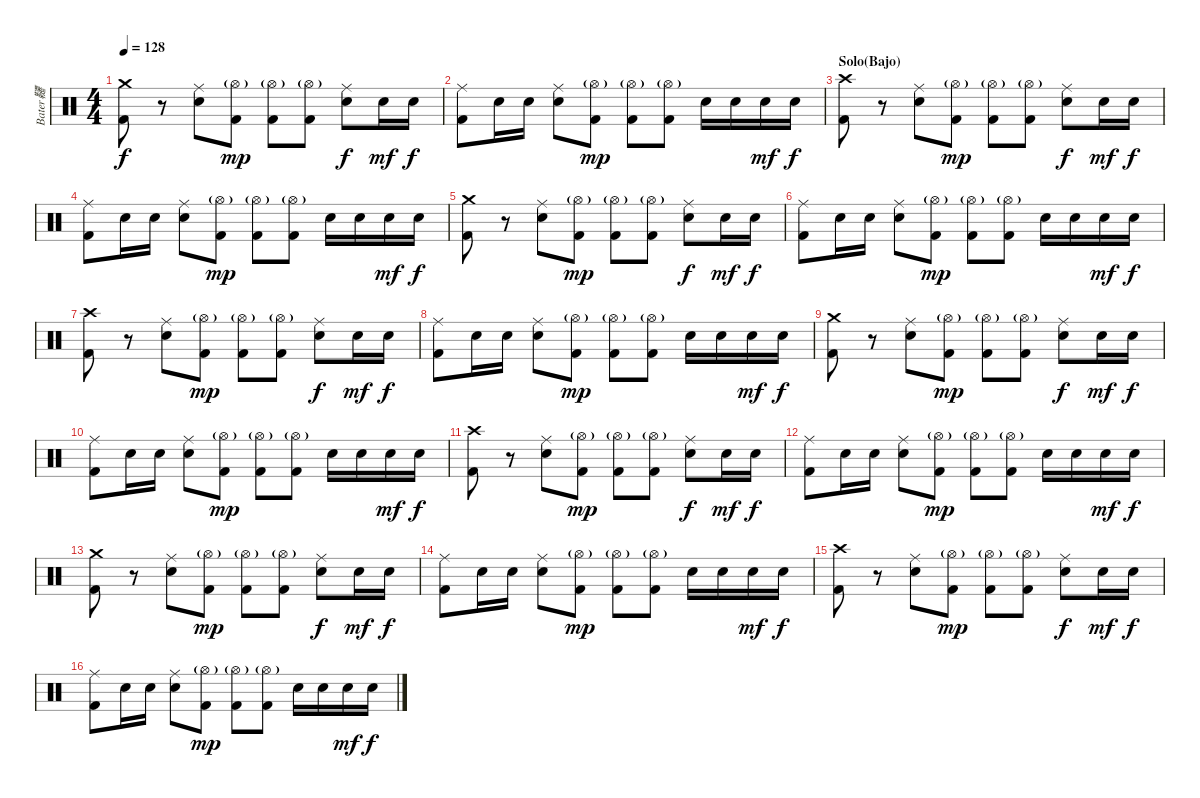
\track ("Bater韆" "Bater韆") {instrument percussion}
\staff {score}
\articulation defaults
\ts (4 4)
\tempo 128
\clef neutral
\ks c
("Crash medium (hit)" "Kick (hit) 2").8{dy f} r.8 ("Ride (middle)" "Electric Snare (hit)").8 ("Hi-Hat (open)"{g} "Kick (hit) 2").8{dy mp} ("Hi-Hat (open)"{g} "Kick (hit) 2").8 ("Hi-Hat (open)"{g} "Kick (hit) 2").8 ("Ride (middle)" "Electric Snare (hit)").8{dy f} "Electric Snare (hit)".16{dy mf} "Electric Snare (hit)".16{dy f} |
("Ride (middle)" "Kick (hit) 2").8 "Electric Snare (hit)".16 "Electric Snare (hit)".16 ("Ride (middle)" "Electric Snare (hit)").8 ("Hi-Hat (open)"{g} "Kick (hit) 2").8{dy mp} ("Hi-Hat (open)"{g} "Kick (hit) 2").8 ("Hi-Hat (open)"{g} "Kick (hit) 2").8 "Electric Snare (hit)".16 "Electric Snare (hit)".16 "Electric Snare (hit)".16{dy mf} "Electric Snare (hit)".16{dy f} |
\section ("" "Solo(Bajo)")
("Crash high (hit)" "Kick (hit) 2").8 r.8 ("Ride (middle)" "Electric Snare (hit)").8 ("Hi-Hat (open)"{g} "Kick (hit) 2").8{dy mp} ("Hi-Hat (open)"{g} "Kick (hit) 2").8 ("Hi-Hat (open)"{g} "Kick (hit) 2").8 ("Ride (middle)" "Electric Snare (hit)").8{dy f} "Electric Snare (hit)".16{dy mf} "Electric Snare (hit)".16{dy f} |
("Ride (middle)" "Kick (hit) 2").8 "Electric Snare (hit)".16 "Electric Snare (hit)".16 ("Ride (middle)" "Electric Snare (hit)").8 ("Hi-Hat (open)"{g} "Kick (hit) 2").8{dy mp} ("Hi-Hat (open)"{g} "Kick (hit) 2").8 ("Hi-Hat (open)"{g} "Kick (hit) 2").8 "Electric Snare (hit)".16 "Electric Snare (hit)".16 "Electric Snare (hit)".16{dy mf} "Electric Snare (hit)".16{dy f} |
("Crash medium (hit)" "Kick (hit) 2").8 r.8 ("Ride (middle)" "Electric Snare (hit)").8 ("Hi-Hat (open)"{g} "Kick (hit) 2").8{dy mp} ("Hi-Hat (open)"{g} "Kick (hit) 2").8 ("Hi-Hat (open)"{g} "Kick (hit) 2").8 ("Ride (middle)" "Electric Snare (hit)").8{dy f} "Electric Snare (hit)".16{dy mf} "Electric Snare (hit)".16{dy f} |
("Ride (middle)" "Kick (hit) 2").8 "Electric Snare (hit)".16 "Electric Snare (hit)".16 ("Ride (middle)" "Electric Snare (hit)").8 ("Hi-Hat (open)"{g} "Kick (hit) 2").8{dy mp} ("Hi-Hat (open)"{g} "Kick (hit) 2").8 ("Hi-Hat (open)"{g} "Kick (hit) 2").8 "Electric Snare (hit)".16 "Electric Snare (hit)".16 "Electric Snare (hit)".16{dy mf} "Electric Snare (hit)".16{dy f} |
("Crash high (hit)" "Kick (hit) 2").8 r.8 ("Ride (middle)" "Electric Snare (hit)").8 ("Hi-Hat (open)"{g} "Kick (hit) 2").8{dy mp} ("Hi-Hat (open)"{g} "Kick (hit) 2").8 ("Hi-Hat (open)"{g} "Kick (hit) 2").8 ("Ride (middle)" "Electric Snare (hit)").8{dy f} "Electric Snare (hit)".16{dy mf} "Electric Snare (hit)".16{dy f} |
("Ride (middle)" "Kick (hit) 2").8 "Electric Snare (hit)".16 "Electric Snare (hit)".16 ("Ride (middle)" "Electric Snare (hit)").8 ("Hi-Hat (open)"{g} "Kick (hit) 2").8{dy mp} ("Hi-Hat (open)"{g} "Kick (hit) 2").8 ("Hi-Hat (open)"{g} "Kick (hit) 2").8 "Electric Snare (hit)".16 "Electric Snare (hit)".16 "Electric Snare (hit)".16{dy mf} "Electric Snare (hit)".16{dy f} |
("Crash medium (hit)" "Kick (hit) 2").8 r.8 ("Ride (middle)" "Electric Snare (hit)").8 ("Hi-Hat (open)"{g} "Kick (hit) 2").8{dy mp} ("Hi-Hat (open)"{g} "Kick (hit) 2").8 ("Hi-Hat (open)"{g} "Kick (hit) 2").8 ("Ride (middle)" "Electric Snare (hit)").8{dy f} "Electric Snare (hit)".16{dy mf} "Electric Snare (hit)".16{dy f} |
("Ride (middle)" "Kick (hit) 2").8 "Electric Snare (hit)".16 "Electric Snare (hit)".16 ("Ride (middle)" "Electric Snare (hit)").8 ("Hi-Hat (open)"{g} "Kick (hit) 2").8{dy mp} ("Hi-Hat (open)"{g} "Kick (hit) 2").8 ("Hi-Hat (open)"{g} "Kick (hit) 2").8 "Electric Snare (hit)".16 "Electric Snare (hit)".16 "Electric Snare (hit)".16{dy mf} "Electric Snare (hit)".16{dy f} |
("Crash high (hit)" "Kick (hit) 2").8 r.8 ("Ride (middle)" "Electric Snare (hit)").8 ("Hi-Hat (open)"{g} "Kick (hit) 2").8{dy mp} ("Hi-Hat (open)"{g} "Kick (hit) 2").8 ("Hi-Hat (open)"{g} "Kick (hit) 2").8 ("Ride (middle)" "Electric Snare (hit)").8{dy f} "Electric Snare (hit)".16{dy mf} "Electric Snare (hit)".16{dy f} |
("Ride (middle)" "Kick (hit) 2").8 "Electric Snare (hit)".16 "Electric Snare (hit)".16 ("Ride (middle)" "Electric Snare (hit)").8 ("Hi-Hat (open)"{g} "Kick (hit) 2").8{dy mp} ("Hi-Hat (open)"{g} "Kick (hit) 2").8 ("Hi-Hat (open)"{g} "Kick (hit) 2").8 "Electric Snare (hit)".16 "Electric Snare (hit)".16 "Electric Snare (hit)".16{dy mf} "Electric Snare (hit)".16{dy f} |
("Crash medium (hit)" "Kick (hit) 2").8 r.8 ("Ride (middle)" "Electric Snare (hit)").8 ("Hi-Hat (open)"{g} "Kick (hit) 2").8{dy mp} ("Hi-Hat (open)"{g} "Kick (hit) 2").8 ("Hi-Hat (open)"{g} "Kick (hit) 2").8 ("Ride (middle)" "Electric Snare (hit)").8{dy f} "Electric Snare (hit)".16{dy mf} "Electric Snare (hit)".16{dy f} |
("Ride (middle)" "Kick (hit) 2").8 "Electric Snare (hit)".16 "Electric Snare (hit)".16 ("Ride (middle)" "Electric Snare (hit)").8 ("Hi-Hat (open)"{g} "Kick (hit) 2").8{dy mp} ("Hi-Hat (open)"{g} "Kick (hit) 2").8 ("Hi-Hat (open)"{g} "Kick (hit) 2").8 "Electric Snare (hit)".16 "Electric Snare (hit)".16 "Electric Snare (hit)".16{dy mf} "Electric Snare (hit)".16{dy f} |
("Crash high (hit)" "Kick (hit) 2").8 r.8 ("Ride (middle)" "Electric Snare (hit)").8 ("Hi-Hat (open)"{g} "Kick (hit) 2").8{dy mp} ("Hi-Hat (open)"{g} "Kick (hit) 2").8 ("Hi-Hat (open)"{g} "Kick (hit) 2").8 ("Ride (middle)" "Electric Snare (hit)").8{dy f} "Electric Snare (hit)".16{dy mf} "Electric Snare (hit)".16{dy f} |
("Ride (middle)" "Kick (hit) 2").8 "Electric Snare (hit)".16 "Electric Snare (hit)".16 ("Ride (middle)" "Electric Snare (hit)").8 ("Hi-Hat (open)"{g} "Kick (hit) 2").8{dy mp} ("Hi-Hat (open)"{g} "Kick (hit) 2").8 ("Hi-Hat (open)"{g} "Kick (hit) 2").8 "Electric Snare (hit)".16 "Electric Snare (hit)".16 "Electric Snare (hit)".16{dy mf} "Electric Snare (hit)".16{dy f}
